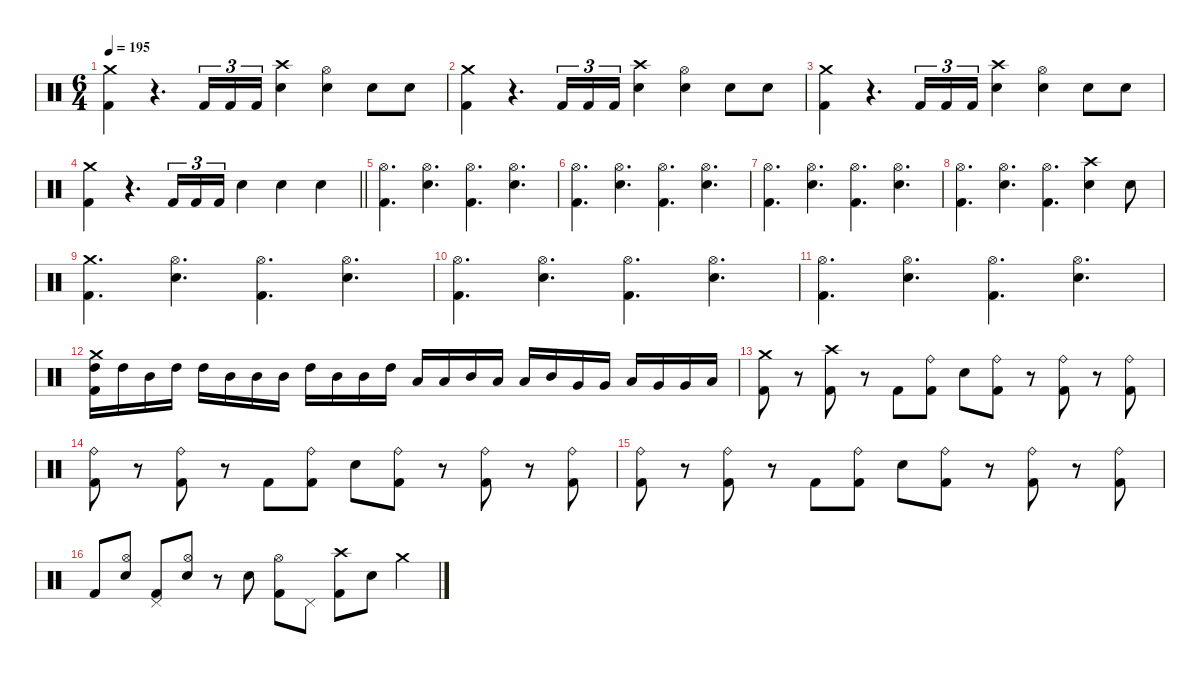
\defaultSystemsLayout 4
\hideDynamics
\bracketExtendMode nobrackets
\singleTrackTrackNamePolicy hidden
\multiTrackTrackNamePolicy hidden
\firstSystemTrackNameMode fullname
\firstSystemTrackNameOrientation horizontal
\otherSystemsTrackNameOrientation horizontal
\track ("Drums" "drm.") {instrument percussion}
\staff {score}
\articulation defaults
\ts (6 4)
\tempo 195
\clef neutral
\ks c
("Crash medium (hit)" "Kick (hit) 2").4{dy f beam Down} r.4{d beam Down} "Kick (hit) 2".16{tu (3 2) beam Up} "Kick (hit) 2".16{tu (3 2) beam Up} "Kick (hit) 2".16{tu (3 2) beam Up} ("Crash high (hit)" "Snare (hit) 2").4{beam Down} ("Hi-Hat (open)" "Snare (hit) 2").4{beam Down} "Snare (hit) 2".8{beam Down} "Snare (hit) 2".8{beam Down} |
("Crash medium (hit)" "Kick (hit) 2").4{beam Down} r.4{d beam Down} "Kick (hit) 2".16{tu (3 2) beam Up} "Kick (hit) 2".16{tu (3 2) beam Up} "Kick (hit) 2".16{tu (3 2) beam Up} ("Crash high (hit)" "Snare (hit) 2").4{beam Down} ("Hi-Hat (open)" "Snare (hit) 2").4{beam Down} "Snare (hit) 2".8{beam Down} "Snare (hit) 2".8{beam Down} |
("Crash medium (hit)" "Kick (hit) 2").4{beam Down} r.4{d beam Down} "Kick (hit) 2".16{tu (3 2) beam Up} "Kick (hit) 2".16{tu (3 2) beam Up} "Kick (hit) 2".16{tu (3 2) beam Up} ("Crash high (hit)" "Snare (hit) 2").4{beam Down} ("Hi-Hat (open)" "Snare (hit) 2").4{beam Down} "Snare (hit) 2".8{beam Down} "Snare (hit) 2".8{beam Down} |
\barLineRight lightlight
("Crash medium (hit)" "Kick (hit) 2").4{beam Down} r.4{d beam Down} "Kick (hit) 2".16{tu (3 2) beam Up} "Kick (hit) 2".16{tu (3 2) beam Up} "Kick (hit) 2".16{tu (3 2) beam Up} "Snare (hit) 2".4{beam Down} "Snare (hit) 2".4{beam Down} "Snare (hit) 2".4{beam Down} |
("Hi-Hat (open)" "Kick (hit) 2").4{d beam Down} ("Hi-Hat (open)" "Snare (hit) 2").4{d beam Down} ("Hi-Hat (open)" "Kick (hit) 2").4{d beam Down} ("Hi-Hat (open)" "Snare (hit) 2").4{d beam Down} |
("Hi-Hat (open)" "Kick (hit) 2").4{d beam Down} ("Hi-Hat (open)" "Snare (hit) 2").4{d beam Down} ("Hi-Hat (open)" "Kick (hit) 2").4{d beam Down} ("Hi-Hat (open)" "Snare (hit) 2").4{d beam Down} |
("Hi-Hat (open)" "Kick (hit) 2").4{d beam Down} ("Hi-Hat (open)" "Snare (hit) 2").4{d beam Down} ("Hi-Hat (open)" "Kick (hit) 2").4{d beam Down} ("Hi-Hat (open)" "Snare (hit) 2").4{d beam Down} |
("Hi-Hat (open)" "Kick (hit) 2").4{d beam Down} ("Hi-Hat (open)" "Snare (hit) 2").4{d beam Down} ("Hi-Hat (open)" "Kick (hit) 2").4{d beam Down} ("Crash high (hit)" "Snare (hit) 2").4{beam Down} "Snare (hit) 2".8{beam Down} |
("Crash medium (hit)" "Kick (hit) 2").4{d beam Down} ("Hi-Hat (open)" "Snare (hit) 2").4{d beam Down} ("Hi-Hat (open)" "Kick (hit) 2").4{d beam Down} ("Hi-Hat (open)" "Snare (hit) 2").4{d beam Down} |
("Hi-Hat (open)" "Kick (hit) 2").4{d beam Down} ("Hi-Hat (open)" "Snare (hit) 2").4{d beam Down} ("Hi-Hat (open)" "Kick (hit) 2").4{d beam Down} ("Hi-Hat (open)" "Snare (hit) 2").4{d beam Down} |
("Hi-Hat (open)" "Kick (hit) 2").4{d beam Down} ("Hi-Hat (open)" "Snare (hit) 2").4{d beam Down} ("Hi-Hat (open)" "Kick (hit) 2").4{d beam Down} ("Hi-Hat (open)" "Snare (hit) 2").4{d beam Down} |
("Crash medium (hit)" "High Tom (hit)" "Kick (hit) 2").16{beam Down} "High Tom (hit)".16{beam Down} "Mid Tom (hit)".16{beam Down} "High Tom (hit)".16{beam Down} "High Tom (hit)".16{beam Down} "Mid Tom (hit)".16{beam Down} "Mid Tom (hit)".16{beam Down} "Mid Tom (hit)".16{beam Down} "High Tom (hit)".16{beam Down} "Mid Tom (hit)".16{beam Down} "Mid Tom (hit)".16{beam Down} "High Tom (hit)".16{beam Down} "Low Tom (hit)".16{beam Up} "Low Tom (hit)".16{beam Up} "Mid Tom (hit)".16{beam Up} "Low Tom (hit)".16{beam Up} "Low Tom (hit)".16{beam Up} "Mid Tom (hit)".16{beam Up} "Very Low Tom (hit)".16{beam Up} "Very Low Tom (hit)".16{beam Up} "Low Tom (hit)".16{beam Up} "Very Low Tom (hit)".16{beam Up} "Very Low Tom (hit)".16{beam Up} "Low Tom (hit)".16{beam Up} |
("Crash medium (hit)" "Kick (hit) 2").8{beam Down} r.8{beam Down} ("Crash high (hit)" "Kick (hit) 2").8{beam Down} r.8{beam Down} "Kick (hit) 2".8{beam Down} ("Ride (bell)" "Kick (hit) 2").8{beam Down} "Snare (hit) 2".8{beam Down} ("Ride (bell)" "Kick (hit) 2").8{beam Down} r.8{beam Down} ("Ride (bell)" "Kick (hit) 2").8{beam Down} r.8{beam Down} ("Ride (bell)" "Kick (hit) 2").8{beam Down} |
("Ride (bell)" "Kick (hit) 2").8{beam Down} r.8{beam Down} ("Ride (bell)" "Kick (hit) 2").8{beam Down} r.8{beam Down} "Kick (hit) 2".8{beam Down} ("Ride (bell)" "Kick (hit) 2").8{beam Down} "Snare (hit) 2".8{beam Down} ("Ride (bell)" "Kick (hit) 2").8{beam Down} r.8{beam Down} ("Ride (bell)" "Kick (hit) 2").8{beam Down} r.8{beam Down} ("Ride (bell)" "Kick (hit) 2").8{beam Down} |
("Ride (bell)" "Kick (hit) 2").8{beam Down} r.8{beam Down} ("Ride (bell)" "Kick (hit) 2").8{beam Down} r.8{beam Down} "Kick (hit) 2".8{beam Down} ("Ride (bell)" "Kick (hit) 2").8{beam Down} "Snare (hit) 2".8{beam Down} ("Ride (bell)" "Kick (hit) 2").8{beam Down} r.8{beam Down} ("Ride (bell)" "Kick (hit) 2").8{beam Down} r.8{beam Down} ("Ride (bell)" "Kick (hit) 2").8{beam Down} |
"Kick (hit) 2".8{beam Up} ("Hi-Hat (open)" "Snare (hit) 2").8{beam Up} ("Pedal Hi-Hat (hit)" "Kick (hit) 2").8{beam Up} ("Hi-Hat (open)" "Snare (hit) 2").8{beam Down} r.8{beam Down} "Snare (hit) 2".8{beam Down} ("Hi-Hat (open)" "Kick (hit) 2").8{beam Down} "Pedal Hi-Hat (hit)".8{beam Down} ("Crash high (hit)" "Kick (hit) 2").8{beam Down} "Snare (hit) 2".8{beam Down} "Crash medium (hit)".4{beam Down}
